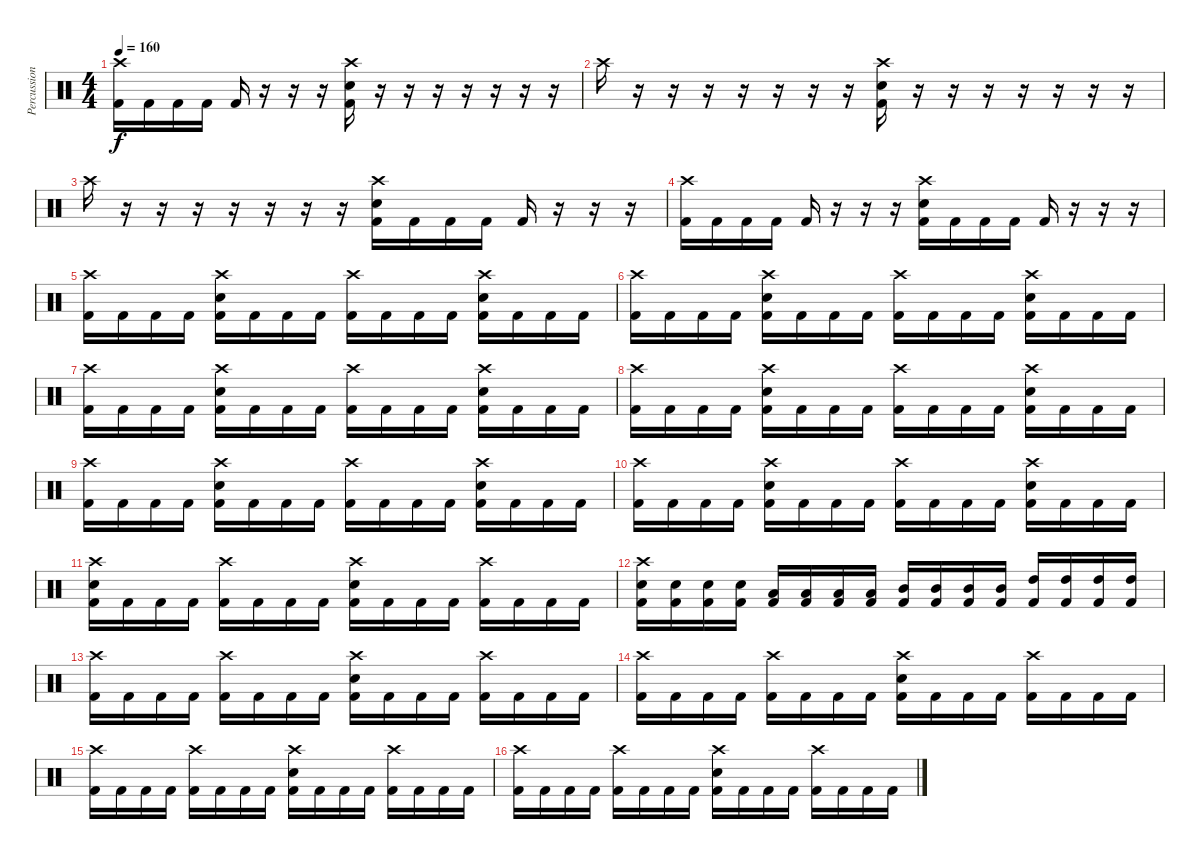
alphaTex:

\track ("Percussion" "Percussion") {instrument percussion}
\staff {score}
\articulation defaults
\ts (4 4)
\tempo 160
\clef neutral
\ks c
("Crash high (hit)" "Kick (hit) 2").16{dy f} "Kick (hit) 2".16 "Kick (hit) 2".16 "Kick (hit) 2".16 "Kick (hit) 2".16 r.16 r.16 r.16 ("Crash high (hit)" "Snare (hit) 2" "Kick (hit) 2").16 r.16 r.16 r.16 r.16 r.16 r.16 r.16 |
"Crash high (hit)".16 r.16 r.16 r.16 r.16 r.16 r.16 r.16 ("Crash high (hit)" "Snare (hit) 2" "Kick (hit) 2").16 r.16 r.16 r.16 r.16 r.16 r.16 r.16 |
"Crash high (hit)".16 r.16 r.16 r.16 r.16 r.16 r.16 r.16 ("Crash high (hit)" "Snare (hit) 2" "Kick (hit) 2").16 "Kick (hit) 2".16 "Kick (hit) 2".16 "Kick (hit) 2".16 "Kick (hit) 2".16 r.16 r.16 r.16 |
("Crash high (hit)" "Kick (hit) 2").16 "Kick (hit) 2".16 "Kick (hit) 2".16 "Kick (hit) 2".16 "Kick (hit) 2".16 r.16 r.16 r.16 ("Crash high (hit)" "Snare (hit) 2" "Kick (hit) 2").16 "Kick (hit) 2".16 "Kick (hit) 2".16 "Kick (hit) 2".16 "Kick (hit) 2".16 r.16 r.16 r.16 |
("Crash high (hit)" "Kick (hit) 2").16 "Kick (hit) 2".16 "Kick (hit) 2".16 "Kick (hit) 2".16 ("Crash high (hit)" "Snare (hit) 2" "Kick (hit) 2").16 "Kick (hit) 2".16 "Kick (hit) 2".16 "Kick (hit) 2".16 ("Crash high (hit)" "Kick (hit) 2").16 "Kick (hit) 2".16 "Kick (hit) 2".16 "Kick (hit) 2".16 ("Crash high (hit)" "Snare (hit) 2" "Kick (hit) 2").16 "Kick (hit) 2".16 "Kick (hit) 2".16 "Kick (hit) 2".16 |
("Crash high (hit)" "Kick (hit) 2").16 "Kick (hit) 2".16 "Kick (hit) 2".16 "Kick (hit) 2".16 ("Crash high (hit)" "Snare (hit) 2" "Kick (hit) 2").16 "Kick (hit) 2".16 "Kick (hit) 2".16 "Kick (hit) 2".16 ("Crash high (hit)" "Kick (hit) 2").16 "Kick (hit) 2".16 "Kick (hit) 2".16 "Kick (hit) 2".16 ("Crash high (hit)" "Snare (hit) 2" "Kick (hit) 2").16 "Kick (hit) 2".16 "Kick (hit) 2".16 "Kick (hit) 2".16 |
("Crash high (hit)" "Kick (hit) 2").16 "Kick (hit) 2".16 "Kick (hit) 2".16 "Kick (hit) 2".16 ("Crash high (hit)" "Snare (hit) 2" "Kick (hit) 2").16 "Kick (hit) 2".16 "Kick (hit) 2".16 "Kick (hit) 2".16 ("Crash high (hit)" "Kick (hit) 2").16 "Kick (hit) 2".16 "Kick (hit) 2".16 "Kick (hit) 2".16 ("Crash high (hit)" "Snare (hit) 2" "Kick (hit) 2").16 "Kick (hit) 2".16 "Kick (hit) 2".16 "Kick (hit) 2".16 |
("Crash high (hit)" "Kick (hit) 2").16 "Kick (hit) 2".16 "Kick (hit) 2".16 "Kick (hit) 2".16 ("Crash high (hit)" "Snare (hit) 2" "Kick (hit) 2").16 "Kick (hit) 2".16 "Kick (hit) 2".16 "Kick (hit) 2".16 ("Crash high (hit)" "Kick (hit) 2").16 "Kick (hit) 2".16 "Kick (hit) 2".16 "Kick (hit) 2".16 ("Crash high (hit)" "Snare (hit) 2" "Kick (hit) 2").16 "Kick (hit) 2".16 "Kick (hit) 2".16 "Kick (hit) 2".16 |
("Crash high (hit)" "Kick (hit) 2").16 "Kick (hit) 2".16 "Kick (hit) 2".16 "Kick (hit) 2".16 ("Crash high (hit)" "Snare (hit) 2" "Kick (hit) 2").16 "Kick (hit) 2".16 "Kick (hit) 2".16 "Kick (hit) 2".16 ("Crash high (hit)" "Kick (hit) 2").16 "Kick (hit) 2".16 "Kick (hit) 2".16 "Kick (hit) 2".16 ("Crash high (hit)" "Snare (hit) 2" "Kick (hit) 2").16 "Kick (hit) 2".16 "Kick (hit) 2".16 "Kick (hit) 2".16 |
("Crash high (hit)" "Kick (hit) 2").16 "Kick (hit) 2".16 "Kick (hit) 2".16 "Kick (hit) 2".16 ("Crash high (hit)" "Snare (hit) 2" "Kick (hit) 2").16 "Kick (hit) 2".16 "Kick (hit) 2".16 "Kick (hit) 2".16 ("Crash high (hit)" "Kick (hit) 2").16 "Kick (hit) 2".16 "Kick (hit) 2".16 "Kick (hit) 2".16 ("Crash high (hit)" "Snare (hit) 2" "Kick (hit) 2").16 "Kick (hit) 2".16 "Kick (hit) 2".16 "Kick (hit) 2".16 |
("Crash high (hit)" "Snare (hit) 2" "Kick (hit) 2").16 "Kick (hit) 2".16 "Kick (hit) 2".16 "Kick (hit) 2".16 ("Crash high (hit)" "Kick (hit) 2").16 "Kick (hit) 2".16 "Kick (hit) 2".16 "Kick (hit) 2".16 ("Crash high (hit)" "Snare (hit) 2" "Kick (hit) 2").16 "Kick (hit) 2".16 "Kick (hit) 2".16 "Kick (hit) 2".16 ("Crash high (hit)" "Kick (hit) 2").16 "Kick (hit) 2".16 "Kick (hit) 2".16 "Kick (hit) 2".16 |
("Crash high (hit)" "Snare (hit) 2" "Kick (hit) 2").16 ("Snare (hit) 2" "Kick (hit) 2").16 ("Snare (hit) 2" "Kick (hit) 2").16 ("Snare (hit) 2" "Kick (hit) 2").16 ("Low Tom (hit)" "Kick (hit) 2").16 ("Low Tom (hit)" "Kick (hit) 2").16 ("Low Tom (hit)" "Kick (hit) 2").16 ("Low Tom (hit)" "Kick (hit) 2").16 ("Mid Tom (hit)" "Kick (hit) 2").16 ("Mid Tom (hit)" "Kick (hit) 2").16 ("Mid Tom (hit)" "Kick (hit) 2").16 ("Mid Tom (hit)" "Kick (hit) 2").16 ("High Tom (hit)" "Kick (hit) 2").16 ("High Tom (hit)" "Kick (hit) 2").16 ("High Tom (hit)" "Kick (hit) 2").16 ("High Tom (hit)" "Kick (hit) 2").16 |
("Crash high (hit)" "Kick (hit) 2").16 "Kick (hit) 2".16 "Kick (hit) 2".16 "Kick (hit) 2".16 ("Crash high (hit)" "Kick (hit) 2").16 "Kick (hit) 2".16 "Kick (hit) 2".16 "Kick (hit) 2".16 ("Crash high (hit)" "Snare (hit) 2" "Kick (hit) 2").16 "Kick (hit) 2".16 "Kick (hit) 2".16 "Kick (hit) 2".16 ("Crash high (hit)" "Kick (hit) 2").16 "Kick (hit) 2".16 "Kick (hit) 2".16 "Kick (hit) 2".16 |
("Crash high (hit)" "Kick (hit) 2").16 "Kick (hit) 2".16 "Kick (hit) 2".16 "Kick (hit) 2".16 ("Crash high (hit)" "Kick (hit) 2").16 "Kick (hit) 2".16 "Kick (hit) 2".16 "Kick (hit) 2".16 ("Crash high (hit)" "Snare (hit) 2" "Kick (hit) 2").16 "Kick (hit) 2".16 "Kick (hit) 2".16 "Kick (hit) 2".16 ("Crash high (hit)" "Kick (hit) 2").16 "Kick (hit) 2".16 "Kick (hit) 2".16 "Kick (hit) 2".16 |
("Crash high (hit)" "Kick (hit) 2").16 "Kick (hit) 2".16 "Kick (hit) 2".16 "Kick (hit) 2".16 ("Crash high (hit)" "Kick (hit) 2").16 "Kick (hit) 2".16 "Kick (hit) 2".16 "Kick (hit) 2".16 ("Crash high (hit)" "Snare (hit) 2" "Kick (hit) 2").16 "Kick (hit) 2".16 "Kick (hit) 2".16 "Kick (hit) 2".16 ("Crash high (hit)" "Kick (hit) 2").16 "Kick (hit) 2".16 "Kick (hit) 2".16 "Kick (hit) 2".16 |
("Crash high (hit)" "Kick (hit) 2").16 "Kick (hit) 2".16 "Kick (hit) 2".16 "Kick (hit) 2".16 ("Crash high (hit)" "Kick (hit) 2").16 "Kick (hit) 2".16 "Kick (hit) 2".16 "Kick (hit) 2".16 ("Crash high (hit)" "Snare (hit) 2" "Kick (hit) 2").16 "Kick (hit) 2".16 "Kick (hit) 2".16 "Kick (hit) 2".16 ("Crash high (hit)" "Kick (hit) 2").16 "Kick (hit) 2".16 "Kick (hit) 2".16 "Kick (hit) 2".16
